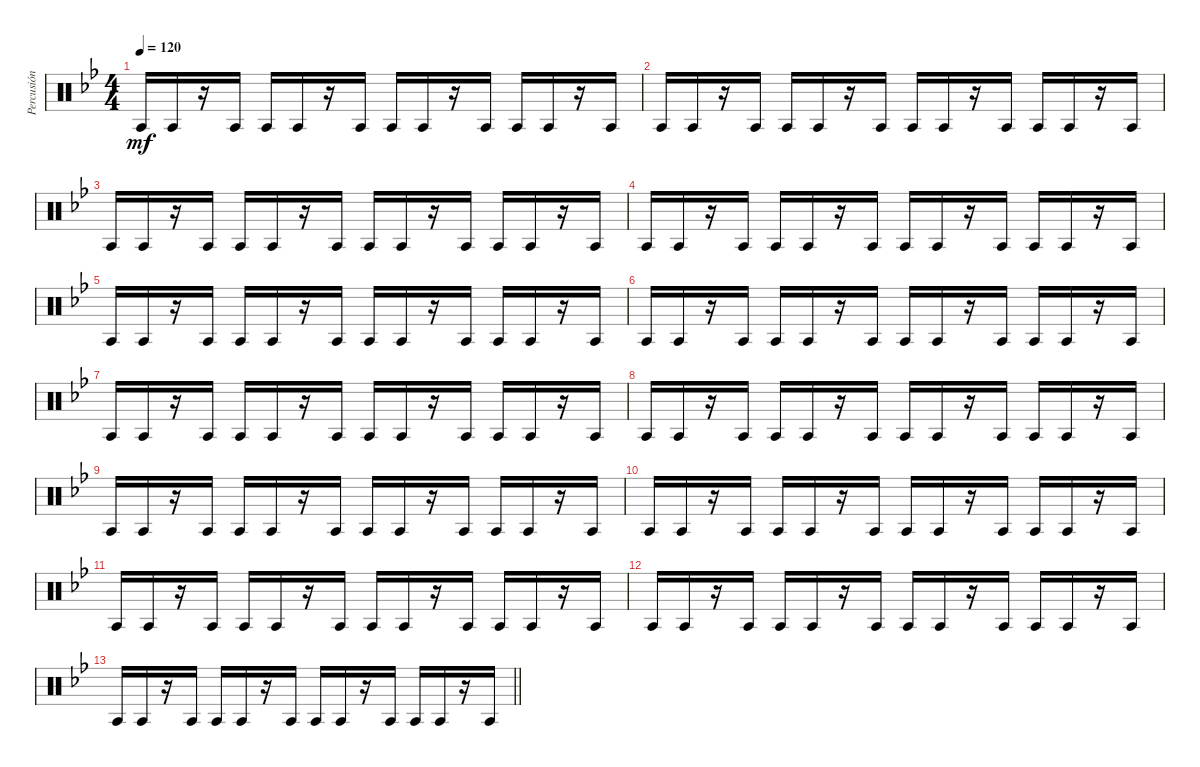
\track ("Percusión" "Percusión") {instrument percussion}
\staff {score}
\articulation defaults
\ts (4 4)
\tempo 120
\clef neutral
\ks bb "Agogo tow (hit)".16{dy mf} "Agogo tow (hit)".16
r.16 "Agogo tow (hit)".16 "Agogo tow (hit)".16 "Agogo tow (hit)".16 r.16 "Agogo tow (hit)".16 "Agogo tow (hit)".16 "Agogo tow (hit)".16 r.16 "Agogo tow (hit)".16 "Agogo tow (hit)".16 "Agogo tow (hit)".16 r.16 "Agogo tow (hit)".16 |
"Agogo tow (hit)".16 "Agogo tow (hit)".16 r.16 "Agogo tow (hit)".16 "Agogo tow (hit)".16 "Agogo tow (hit)".16 r.16 "Agogo tow (hit)".16 "Agogo tow (hit)".16 "Agogo tow (hit)".16 r.16 "Agogo tow (hit)".16 "Agogo tow (hit)".16 "Agogo tow (hit)".16 r.16 "Agogo tow (hit)".16 |
"Agogo tow (hit)".16 "Agogo tow (hit)".16 r.16 "Agogo tow (hit)".16 "Agogo tow (hit)".16 "Agogo tow (hit)".16 r.16 "Agogo tow (hit)".16 "Agogo tow (hit)".16 "Agogo tow (hit)".16 r.16 "Agogo tow (hit)".16 "Agogo tow (hit)".16 "Agogo tow (hit)".16 r.16 "Agogo tow (hit)".16 |
"Agogo tow (hit)".16 "Agogo tow (hit)".16 r.16 "Agogo tow (hit)".16 "Agogo tow (hit)".16 "Agogo tow (hit)".16 r.16 "Agogo tow (hit)".16 "Agogo tow (hit)".16 "Agogo tow (hit)".16 r.16 "Agogo tow (hit)".16 "Agogo tow (hit)".16 "Agogo tow (hit)".16 r.16 "Agogo tow (hit)".16 |
"Agogo tow (hit)".16 "Agogo tow (hit)".16 r.16 "Agogo tow (hit)".16 "Agogo tow (hit)".16 "Agogo tow (hit)".16 r.16 "Agogo tow (hit)".16 "Agogo tow (hit)".16 "Agogo tow (hit)".16 r.16 "Agogo tow (hit)".16 "Agogo tow (hit)".16 "Agogo tow (hit)".16 r.16 "Agogo tow (hit)".16 |
"Agogo tow (hit)".16 "Agogo tow (hit)".16 r.16 "Agogo tow (hit)".16 "Agogo tow (hit)".16 "Agogo tow (hit)".16 r.16 "Agogo tow (hit)".16 "Agogo tow (hit)".16 "Agogo tow (hit)".16 r.16 "Agogo tow (hit)".16 "Agogo tow (hit)".16 "Agogo tow (hit)".16 r.16 "Agogo tow (hit)".16 |
"Agogo tow (hit)".16 "Agogo tow (hit)".16 r.16 "Agogo tow (hit)".16 "Agogo tow (hit)".16 "Agogo tow (hit)".16 r.16 "Agogo tow (hit)".16 "Agogo tow (hit)".16 "Agogo tow (hit)".16 r.16 "Agogo tow (hit)".16 "Agogo tow (hit)".16 "Agogo tow (hit)".16 r.16 "Agogo tow (hit)".16 |
"Agogo tow (hit)".16 "Agogo tow (hit)".16 r.16 "Agogo tow (hit)".16 "Agogo tow (hit)".16 "Agogo tow (hit)".16 r.16 "Agogo tow (hit)".16 "Agogo tow (hit)".16 "Agogo tow (hit)".16 r.16 "Agogo tow (hit)".16 "Agogo tow (hit)".16 "Agogo tow (hit)".16 r.16 "Agogo tow (hit)".16 |
"Agogo tow (hit)".16 "Agogo tow (hit)".16 r.16 "Agogo tow (hit)".16 "Agogo tow (hit)".16 "Agogo tow (hit)".16 r.16 "Agogo tow (hit)".16 "Agogo tow (hit)".16 "Agogo tow (hit)".16 r.16 "Agogo tow (hit)".16 "Agogo tow (hit)".16 "Agogo tow (hit)".16 r.16 "Agogo tow (hit)".16 |
"Agogo tow (hit)".16 "Agogo tow (hit)".16 r.16 "Agogo tow (hit)".16 "Agogo tow (hit)".16 "Agogo tow (hit)".16 r.16 "Agogo tow (hit)".16 "Agogo tow (hit)".16 "Agogo tow (hit)".16 r.16 "Agogo tow (hit)".16 "Agogo tow (hit)".16 "Agogo tow (hit)".16 r.16 "Agogo tow (hit)".16 |
"Agogo tow (hit)".16 "Agogo tow (hit)".16 r.16 "Agogo tow (hit)".16 "Agogo tow (hit)".16 "Agogo tow (hit)".16 r.16 "Agogo tow (hit)".16 "Agogo tow (hit)".16 "Agogo tow (hit)".16 r.16 "Agogo tow (hit)".16 "Agogo tow (hit)".16 "Agogo tow (hit)".16 r.16 "Agogo tow (hit)".16 |
"Agogo tow (hit)".16 "Agogo tow (hit)".16 r.16 "Agogo tow (hit)".16 "Agogo tow (hit)".16 "Agogo tow (hit)".16 r.16 "Agogo tow (hit)".16 "Agogo tow (hit)".16 "Agogo tow (hit)".16 r.16 "Agogo tow (hit)".16 "Agogo tow (hit)".16 "Agogo tow (hit)".16 r.16 "Agogo tow (hit)".16 |
\barLineRight lightlight "Agogo tow (hit)".16 "Agogo tow (hit)".16
r.16 "Agogo tow (hit)".16 "Agogo tow (hit)".16 "Agogo tow (hit)".16 r.16 "Agogo tow (hit)".16 "Agogo tow (hit)".16 "Agogo tow (hit)".16 r.16 "Agogo tow (hit)".16 "Agogo tow (hit)".16 "Agogo tow (hit)".16 r.16 "Agogo tow (hit)".16
